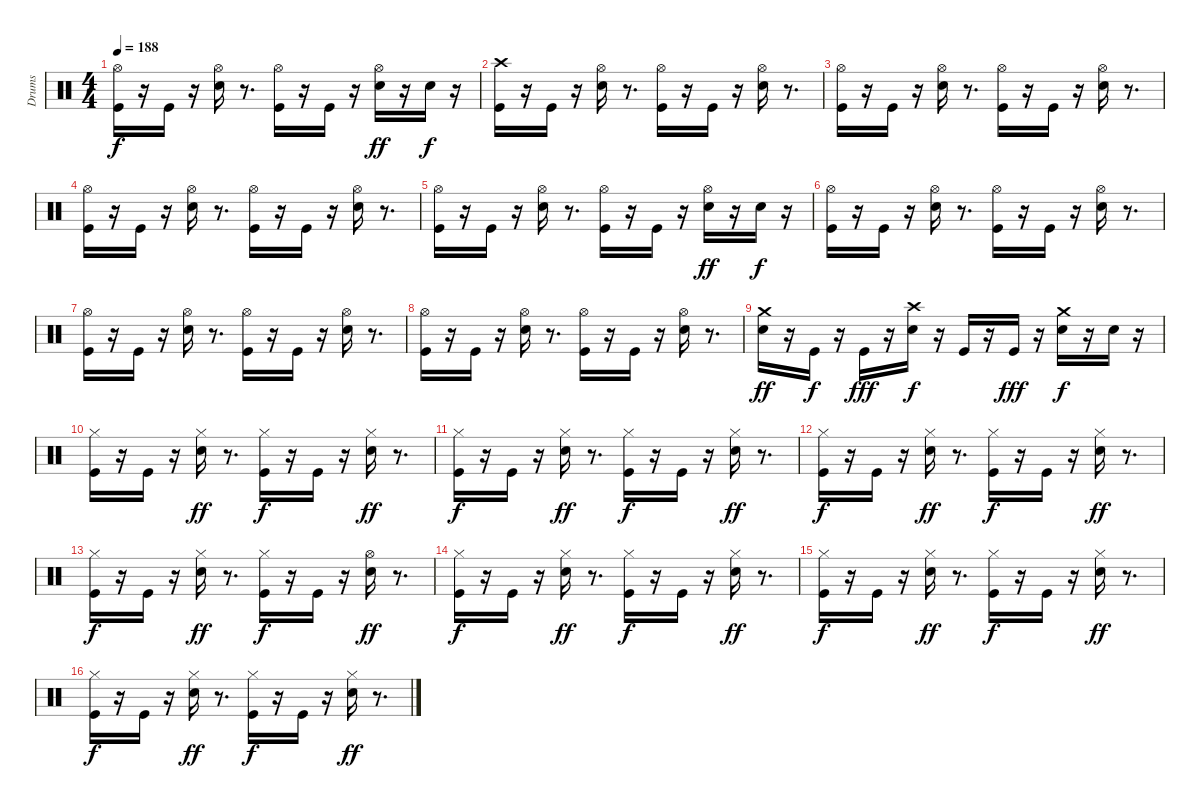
\track ("Drums" "Drums") {instrument percussion}
\staff {score}
\articulation defaults
\ts (4 4)
\tempo 188
\clef neutral
\ks c
("Hi-Hat (open)" "Kick (hit)").16{dy f} r.16 "Kick (hit)".16 r.16 ("Hi-Hat (open)" "Snare (hit) 2").16 r.8{d} ("Hi-Hat (open)" "Kick (hit)").16 r.16 "Kick (hit)".16 r.16 ("Snare (hit) 2" "Hi-Hat (open)").16{dy ff} r.16 "Snare (hit) 2".16{dy f} r.16 |
("Crash high (hit)" "Kick (hit)").16 r.16 "Kick (hit)".16 r.16 ("Hi-Hat (open)" "Snare (hit) 2").16 r.8{d} ("Hi-Hat (open)" "Kick (hit)").16 r.16 "Kick (hit)".16 r.16 ("Hi-Hat (open)" "Snare (hit) 2").16 r.8{d} |
("Hi-Hat (open)" "Kick (hit)").16 r.16 "Kick (hit)".16 r.16 ("Hi-Hat (open)" "Snare (hit) 2").16 r.8{d} ("Hi-Hat (open)" "Kick (hit)").16 r.16 "Kick (hit)".16 r.16 ("Hi-Hat (open)" "Snare (hit) 2").16 r.8{d} |
("Hi-Hat (open)" "Kick (hit)").16 r.16 "Kick (hit)".16 r.16 ("Hi-Hat (open)" "Snare (hit) 2").16 r.8{d} ("Hi-Hat (open)" "Kick (hit)").16 r.16 "Kick (hit)".16 r.16 ("Hi-Hat (open)" "Snare (hit) 2").16 r.8{d} |
("Hi-Hat (open)" "Kick (hit)").16 r.16 "Kick (hit)".16 r.16 ("Hi-Hat (open)" "Snare (hit) 2").16 r.8{d} ("Hi-Hat (open)" "Kick (hit)").16 r.16 "Kick (hit)".16 r.16 ("Snare (hit) 2" "Hi-Hat (open)").16{dy ff} r.16 "Snare (hit) 2".16{dy f} r.16 |
("Hi-Hat (open)" "Kick (hit)").16 r.16 "Kick (hit)".16 r.16 ("Hi-Hat (open)" "Snare (hit) 2").16 r.8{d} ("Hi-Hat (open)" "Kick (hit)").16 r.16 "Kick (hit)".16 r.16 ("Hi-Hat (open)" "Snare (hit) 2").16 r.8{d} |
("Hi-Hat (open)" "Kick (hit)").16 r.16 "Kick (hit)".16 r.16 ("Hi-Hat (open)" "Snare (hit) 2").16 r.8{d} ("Hi-Hat (open)" "Kick (hit)").16 r.16 "Kick (hit)".16 r.16 ("Hi-Hat (open)" "Snare (hit) 2").16 r.8{d} |
("Hi-Hat (open)" "Kick (hit)").16 r.16 "Kick (hit)".16 r.16 ("Hi-Hat (open)" "Snare (hit) 2").16 r.8{d} ("Hi-Hat (open)" "Kick (hit)").16 r.16 "Kick (hit)".16 r.16 ("Hi-Hat (open)" "Snare (hit) 2").16 r.8{d} |
("Snare (hit) 2" "Crash medium (hit)").16{dy ff} r.16 "Kick (hit)".16{dy f} r.16 "Kick (hit)".16{dy fff} r.16 ("Crash high (hit)" "Snare (hit) 2").16{dy f} r.16 "Kick (hit)".16 r.16 "Kick (hit)".16{dy fff} r.16 ("Crash medium (hit)" "Snare (hit) 2").16{dy f} r.16 "Snare (hit) 2".16 r.16 |
("Hi-Hat (closed)" "Kick (hit)").16 r.16 "Kick (hit)".16 r.16 ("Snare (hit) 2" "Hi-Hat (closed)").16{dy ff} r.8{d} ("Hi-Hat (closed)" "Kick (hit)").16{dy f} r.16 "Kick (hit)".16 r.16 ("Snare (hit) 2" "Hi-Hat (closed)").16{dy ff} r.8{d} |
("Hi-Hat (closed)" "Kick (hit)").16{dy f} r.16 "Kick (hit)".16 r.16 ("Snare (hit) 2" "Hi-Hat (closed)").16{dy ff} r.8{d} ("Hi-Hat (closed)" "Kick (hit)").16{dy f} r.16 "Kick (hit)".16 r.16 ("Snare (hit) 2" "Hi-Hat (closed)").16{dy ff} r.8{d} |
("Hi-Hat (closed)" "Kick (hit)").16{dy f} r.16 "Kick (hit)".16 r.16 ("Snare (hit) 2" "Hi-Hat (closed)").16{dy ff} r.8{d} ("Hi-Hat (closed)" "Kick (hit)").16{dy f} r.16 "Kick (hit)".16 r.16 ("Snare (hit) 2" "Hi-Hat (closed)").16{dy ff} r.8{d} |
("Hi-Hat (closed)" "Kick (hit)").16{dy f} r.16 "Kick (hit)".16 r.16 ("Snare (hit) 2" "Hi-Hat (closed)").16{dy ff} r.8{d} ("Hi-Hat (closed)" "Kick (hit)").16{dy f} r.16 "Kick (hit)".16 r.16 ("Snare (hit) 2" "Hi-Hat (open)").16{dy ff} r.8{d} |
("Hi-Hat (closed)" "Kick (hit)").16{dy f} r.16 "Kick (hit)".16 r.16 ("Snare (hit) 2" "Hi-Hat (closed)").16{dy ff} r.8{d} ("Hi-Hat (closed)" "Kick (hit)").16{dy f} r.16 "Kick (hit)".16 r.16 ("Snare (hit) 2" "Hi-Hat (closed)").16{dy ff} r.8{d} |
("Hi-Hat (closed)" "Kick (hit)").16{dy f} r.16 "Kick (hit)".16 r.16 ("Snare (hit) 2" "Hi-Hat (closed)").16{dy ff} r.8{d} ("Hi-Hat (closed)" "Kick (hit)").16{dy f} r.16 "Kick (hit)".16 r.16 ("Snare (hit) 2" "Hi-Hat (closed)").16{dy ff} r.8{d} |
("Hi-Hat (closed)" "Kick (hit)").16{dy f} r.16 "Kick (hit)".16 r.16 ("Snare (hit) 2" "Hi-Hat (closed)").16{dy ff} r.8{d} ("Hi-Hat (closed)" "Kick (hit)").16{dy f} r.16 "Kick (hit)".16 r.16 ("Snare (hit) 2" "Hi-Hat (closed)").16{dy ff} r.8{d}
